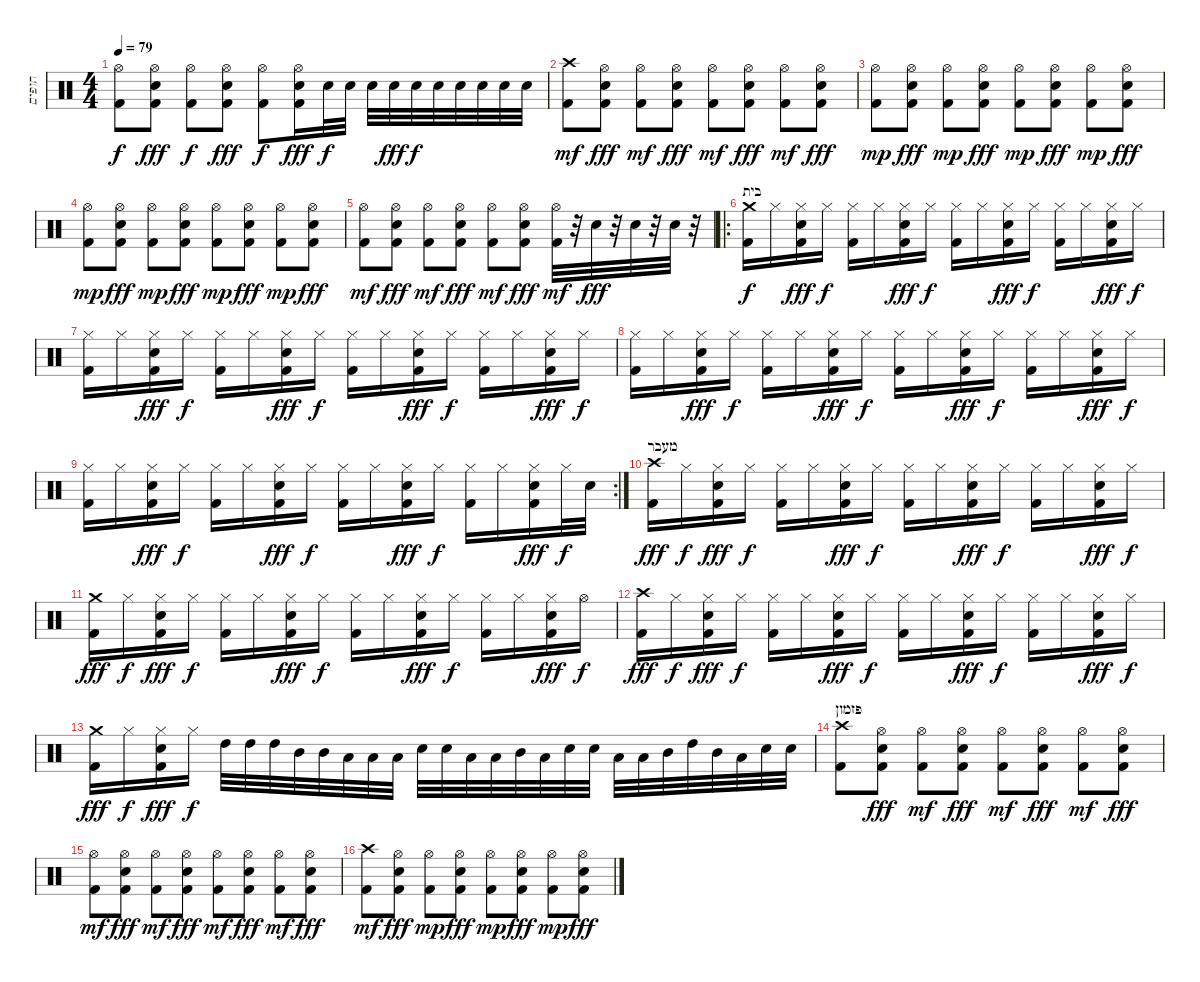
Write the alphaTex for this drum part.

\track ("תופים" "תופים") {instrument percussion}
\staff {score}
\articulation defaults
\ts (4 4)
\tempo 79
\clef neutral
\ks c
("Hi-Hat (open)" "Kick (hit) 2").8{dy f} ("Hi-Hat (open)" "Snare (hit) 2" "Kick (hit) 2").8{dy fff} ("Hi-Hat (open)" "Kick (hit) 2").8{dy f} ("Hi-Hat (open)" "Snare (hit) 2" "Kick (hit) 2").8{dy fff} ("Hi-Hat (open)" "Kick (hit) 2").8{dy f} ("Hi-Hat (open)" "Snare (hit) 2" "Kick (hit) 2").16{dy fff} "Snare (hit) 2".32{dy f} "Snare (hit) 2".32 "Snare (hit) 2".32 "Snare (hit) 2".32{dy fff} "Snare (hit) 2".32{dy f} "Snare (hit) 2".32 "Snare (hit) 2".32 "Snare (hit) 2".32 "Snare (hit) 2".32 "Snare (hit) 2".32 |
("Crash high (hit)" "Kick (hit) 2").8{dy mf} ("Hi-Hat (open)" "Snare (hit) 2" "Kick (hit) 2").8{dy fff} ("Hi-Hat (open)" "Kick (hit) 2").8{dy mf} ("Hi-Hat (open)" "Snare (hit) 2" "Kick (hit) 2").8{dy fff} ("Hi-Hat (open)" "Kick (hit) 2").8{dy mf} ("Hi-Hat (open)" "Snare (hit) 2" "Kick (hit) 2").8{dy fff} ("Hi-Hat (open)" "Kick (hit) 2").8{dy mf} ("Hi-Hat (open)" "Snare (hit) 2" "Kick (hit) 2").8{dy fff} |
("Hi-Hat (open)" "Kick (hit) 2").8{dy mp} ("Hi-Hat (open)" "Snare (hit) 2" "Kick (hit) 2").8{dy fff} ("Hi-Hat (open)" "Kick (hit) 2").8{dy mp} ("Hi-Hat (open)" "Snare (hit) 2" "Kick (hit) 2").8{dy fff} ("Hi-Hat (open)" "Kick (hit) 2").8{dy mp} ("Hi-Hat (open)" "Snare (hit) 2" "Kick (hit) 2").8{dy fff} ("Hi-Hat (open)" "Kick (hit) 2").8{dy mp} ("Hi-Hat (open)" "Snare (hit) 2" "Kick (hit) 2").8{dy fff} |
("Hi-Hat (open)" "Kick (hit) 2").8{dy mp} ("Hi-Hat (open)" "Snare (hit) 2" "Kick (hit) 2").8{dy fff} ("Hi-Hat (open)" "Kick (hit) 2").8{dy mp} ("Hi-Hat (open)" "Snare (hit) 2" "Kick (hit) 2").8{dy fff} ("Hi-Hat (open)" "Kick (hit) 2").8{dy mp} ("Hi-Hat (open)" "Snare (hit) 2" "Kick (hit) 2").8{dy fff} ("Hi-Hat (open)" "Kick (hit) 2").8{dy mp} ("Hi-Hat (open)" "Snare (hit) 2" "Kick (hit) 2").8{dy fff} |
("Hi-Hat (open)" "Kick (hit) 2").8{dy mf} ("Hi-Hat (open)" "Snare (hit) 2" "Kick (hit) 2").8{dy fff} ("Hi-Hat (open)" "Kick (hit) 2").8{dy mf} ("Hi-Hat (open)" "Snare (hit) 2" "Kick (hit) 2").8{dy fff} ("Hi-Hat (open)" "Kick (hit) 2").8{dy mf} ("Hi-Hat (open)" "Snare (hit) 2" "Kick (hit) 2").8{dy fff} ("Hi-Hat (open)" "Kick (hit) 2").32{dy mf} r.32 "Snare (hit) 2".32{dy fff} r.32 "Snare (hit) 2".32 r.32 "Snare (hit) 2".32 r.32 |
\ro
\section ("" "בית")
("Crash medium (hit)" "Kick (hit) 2").16{dy f} "Hi-Hat (closed)".16 ("Hi-Hat (closed)" "Snare (hit) 2" "Kick (hit) 2").16{dy fff} "Hi-Hat (closed)".16{dy f} ("Hi-Hat (closed)" "Kick (hit) 2").16 "Hi-Hat (closed)".16 ("Hi-Hat (closed)" "Snare (hit) 2" "Kick (hit) 2").16{dy fff} "Hi-Hat (closed)".16{dy f} ("Hi-Hat (closed)" "Kick (hit) 2").16 "Hi-Hat (closed)".16 ("Hi-Hat (closed)" "Snare (hit) 2" "Kick (hit) 2").16{dy fff} "Hi-Hat (closed)".16{dy f} ("Hi-Hat (closed)" "Kick (hit) 2").16 "Hi-Hat (closed)".16 ("Hi-Hat (closed)" "Snare (hit) 2" "Kick (hit) 2").16{dy fff} "Hi-Hat (closed)".16{dy f} |
("Hi-Hat (closed)" "Kick (hit) 2").16 "Hi-Hat (closed)".16 ("Hi-Hat (closed)" "Snare (hit) 2" "Kick (hit) 2").16{dy fff} "Hi-Hat (closed)".16{dy f} ("Hi-Hat (closed)" "Kick (hit) 2").16 "Hi-Hat (closed)".16 ("Hi-Hat (closed)" "Snare (hit) 2" "Kick (hit) 2").16{dy fff} "Hi-Hat (closed)".16{dy f} ("Hi-Hat (closed)" "Kick (hit) 2").16 "Hi-Hat (closed)".16 ("Hi-Hat (closed)" "Snare (hit) 2" "Kick (hit) 2").16{dy fff} "Hi-Hat (closed)".16{dy f} ("Hi-Hat (closed)" "Kick (hit) 2").16 "Hi-Hat (closed)".16 ("Hi-Hat (closed)" "Snare (hit) 2" "Kick (hit) 2").16{dy fff} "Hi-Hat (closed)".16{dy f} |
("Hi-Hat (closed)" "Kick (hit) 2").16 "Hi-Hat (closed)".16 ("Hi-Hat (closed)" "Snare (hit) 2" "Kick (hit) 2").16{dy fff} "Hi-Hat (closed)".16{dy f} ("Hi-Hat (closed)" "Kick (hit) 2").16 "Hi-Hat (closed)".16 ("Hi-Hat (closed)" "Snare (hit) 2" "Kick (hit) 2").16{dy fff} "Hi-Hat (closed)".16{dy f} ("Hi-Hat (closed)" "Kick (hit) 2").16 "Hi-Hat (closed)".16 ("Hi-Hat (closed)" "Snare (hit) 2" "Kick (hit) 2").16{dy fff} "Hi-Hat (closed)".16{dy f} ("Hi-Hat (closed)" "Kick (hit) 2").16 "Hi-Hat (closed)".16 ("Hi-Hat (closed)" "Snare (hit) 2" "Kick (hit) 2").16{dy fff} "Hi-Hat (closed)".16{dy f} |
\rc 2
("Hi-Hat (closed)" "Kick (hit) 2").16 "Hi-Hat (closed)".16 ("Hi-Hat (closed)" "Snare (hit) 2" "Kick (hit) 2").16{dy fff} "Hi-Hat (closed)".16{dy f} ("Hi-Hat (closed)" "Kick (hit) 2").16 "Hi-Hat (closed)".16 ("Hi-Hat (closed)" "Snare (hit) 2" "Kick (hit) 2").16{dy fff} "Hi-Hat (closed)".16{dy f} ("Hi-Hat (closed)" "Kick (hit) 2").16 "Hi-Hat (closed)".16 ("Hi-Hat (closed)" "Snare (hit) 2" "Kick (hit) 2").16{dy fff} "Hi-Hat (closed)".16{dy f} ("Hi-Hat (closed)" "Kick (hit) 2").16 "Hi-Hat (closed)".16 ("Hi-Hat (closed)" "Snare (hit) 2" "Kick (hit) 2").16{dy fff} "Hi-Hat (closed)".32{dy f} "Snare (hit) 2".32 |
\section ("" "מעבר")
("Crash high (hit)" "Kick (hit) 2").16{dy fff} "Hi-Hat (closed)".16{dy f} ("Hi-Hat (closed)" "Snare (hit) 2" "Kick (hit) 2").16{dy fff} "Hi-Hat (closed)".16{dy f} ("Hi-Hat (closed)" "Kick (hit) 2").16 "Hi-Hat (closed)".16 ("Hi-Hat (closed)" "Snare (hit) 2" "Kick (hit) 2").16{dy fff} "Hi-Hat (closed)".16{dy f} ("Hi-Hat (closed)" "Kick (hit) 2").16 "Hi-Hat (closed)".16 ("Hi-Hat (closed)" "Snare (hit) 2" "Kick (hit) 2").16{dy fff} "Hi-Hat (closed)".16{dy f} ("Hi-Hat (closed)" "Kick (hit) 2").16 "Hi-Hat (closed)".16 ("Hi-Hat (closed)" "Snare (hit) 2" "Kick (hit) 2").16{dy fff} "Hi-Hat (closed)".16{dy f} |
("Crash medium (hit)" "Kick (hit) 2").16{dy fff} "Hi-Hat (closed)".16{dy f} ("Hi-Hat (closed)" "Snare (hit) 2" "Kick (hit) 2").16{dy fff} "Hi-Hat (closed)".16{dy f} ("Hi-Hat (closed)" "Kick (hit) 2").16 "Hi-Hat (closed)".16 ("Hi-Hat (closed)" "Snare (hit) 2" "Kick (hit) 2").16{dy fff} "Hi-Hat (closed)".16{dy f} ("Hi-Hat (closed)" "Kick (hit) 2").16 "Hi-Hat (closed)".16 ("Hi-Hat (closed)" "Snare (hit) 2" "Kick (hit) 2").16{dy fff} "Hi-Hat (closed)".16{dy f} ("Hi-Hat (closed)" "Kick (hit) 2").16 "Hi-Hat (closed)".16 ("Hi-Hat (closed)" "Snare (hit) 2" "Kick (hit) 2").16{dy fff} "Hi-Hat (open)".16{dy f} |
("Crash high (hit)" "Kick (hit) 2").16{dy fff} "Hi-Hat (closed)".16{dy f} ("Hi-Hat (closed)" "Snare (hit) 2" "Kick (hit) 2").16{dy fff} "Hi-Hat (closed)".16{dy f} ("Hi-Hat (closed)" "Kick (hit) 2").16 "Hi-Hat (closed)".16 ("Hi-Hat (closed)" "Snare (hit) 2" "Kick (hit) 2").16{dy fff} "Hi-Hat (closed)".16{dy f} ("Hi-Hat (closed)" "Kick (hit) 2").16 "Hi-Hat (closed)".16 ("Hi-Hat (closed)" "Snare (hit) 2" "Kick (hit) 2").16{dy fff} "Hi-Hat (closed)".16{dy f} ("Hi-Hat (closed)" "Kick (hit) 2").16 "Hi-Hat (closed)".16 ("Hi-Hat (closed)" "Snare (hit) 2" "Kick (hit) 2").16{dy fff} "Hi-Hat (closed)".16{dy f} |
("Crash medium (hit)" "Kick (hit) 2").16{dy fff} "Hi-Hat (closed)".16{dy f} ("Hi-Hat (closed)" "Snare (hit) 2" "Kick (hit) 2").16{dy fff} "Hi-Hat (closed)".16{dy f} "High Tom (hit)".32 "High Tom (hit)".32 "High Tom (hit)".32 "Mid Tom (hit)".32 "Mid Tom (hit)".32 "Low Tom (hit)".32 "Low Tom (hit)".32 "Low Tom (hit)".32 "Snare (hit) 2".32 "Snare (hit) 2".32 "Low Tom (hit)".32 "Low Tom (hit)".32 "Mid Tom (hit)".32 "Low Tom (hit)".32 "Snare (hit) 2".32 "Snare (hit) 2".32 "Low Tom (hit)".32 "Low Tom (hit)".32 "Mid Tom (hit)".32 "High Tom (hit)".32 "Mid Tom (hit)".32 "Low Tom (hit)".32 "Snare (hit) 2".32 "Snare (hit) 2".32 |
\section ("" "פזמון")
("Crash high (hit)" "Kick (hit) 2").8 ("Hi-Hat (open)" "Snare (hit) 2" "Kick (hit) 2").8{dy fff} ("Hi-Hat (open)" "Kick (hit) 2").8{dy mf} ("Hi-Hat (open)" "Snare (hit) 2" "Kick (hit) 2").8{dy fff} ("Hi-Hat (open)" "Kick (hit) 2").8{dy mf} ("Hi-Hat (open)" "Snare (hit) 2" "Kick (hit) 2").8{dy fff} ("Hi-Hat (open)" "Kick (hit) 2").8{dy mf} ("Hi-Hat (open)" "Snare (hit) 2" "Kick (hit) 2").8{dy fff} |
("Hi-Hat (open)" "Kick (hit) 2").8{dy mf} ("Hi-Hat (open)" "Snare (hit) 2" "Kick (hit) 2").8{dy fff} ("Hi-Hat (open)" "Kick (hit) 2").8{dy mf} ("Hi-Hat (open)" "Snare (hit) 2" "Kick (hit) 2").8{dy fff} ("Hi-Hat (open)" "Kick (hit) 2").8{dy mf} ("Hi-Hat (open)" "Snare (hit) 2" "Kick (hit) 2").8{dy fff} ("Hi-Hat (open)" "Kick (hit) 2").8{dy mf} ("Hi-Hat (open)" "Snare (hit) 2" "Kick (hit) 2").8{dy fff} |
("Crash high (hit)" "Kick (hit) 2").8{dy mf} ("Hi-Hat (open)" "Snare (hit) 2" "Kick (hit) 2").8{dy fff} ("Hi-Hat (open)" "Kick (hit) 2").8{dy mp} ("Hi-Hat (open)" "Snare (hit) 2" "Kick (hit) 2").8{dy fff} ("Hi-Hat (open)" "Kick (hit) 2").8{dy mp} ("Hi-Hat (open)" "Snare (hit) 2" "Kick (hit) 2").8{dy fff} ("Hi-Hat (open)" "Kick (hit) 2").8{dy mp} ("Hi-Hat (open)" "Snare (hit) 2" "Kick (hit) 2").8{dy fff}
